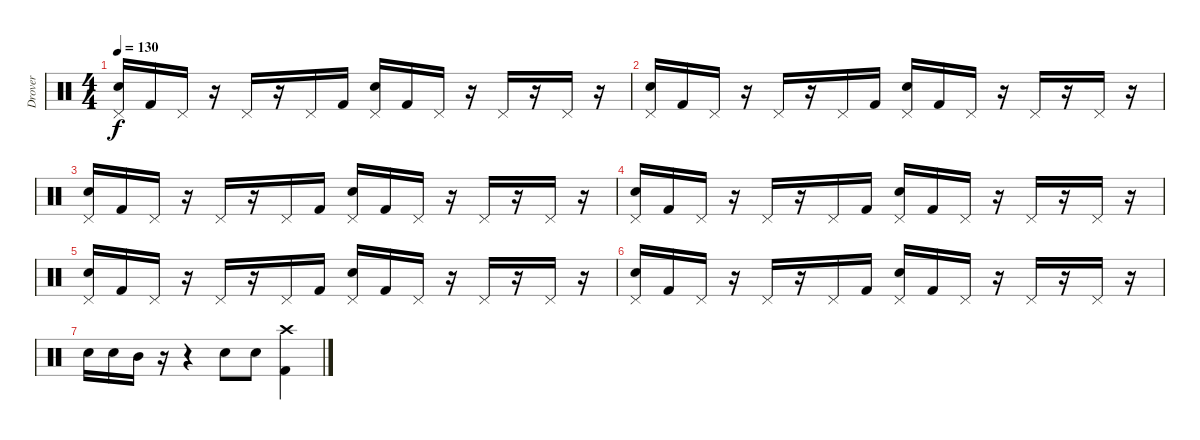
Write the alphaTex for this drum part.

\track ("Drover" "Drover") {instrument percussion}
\staff {score}
\articulation defaults
\ts (4 4)
\tempo 130
\clef neutral
\ks c
("Electric Snare (hit)" "Pedal Hi-Hat (hit)").16{dy f} "Kick (hit) 2".16 "Pedal Hi-Hat (hit)".16 r.16 "Pedal Hi-Hat (hit)".16 r.16 "Pedal Hi-Hat (hit)".16 "Kick (hit) 2".16 ("Electric Snare (hit)" "Pedal Hi-Hat (hit)").16 "Kick (hit) 2".16 "Pedal Hi-Hat (hit)".16 r.16 "Pedal Hi-Hat (hit)".16 r.16 "Pedal Hi-Hat (hit)".16 r.16 |
("Electric Snare (hit)" "Pedal Hi-Hat (hit)").16 "Kick (hit) 2".16 "Pedal Hi-Hat (hit)".16 r.16 "Pedal Hi-Hat (hit)".16 r.16 "Pedal Hi-Hat (hit)".16 "Kick (hit) 2".16 ("Electric Snare (hit)" "Pedal Hi-Hat (hit)").16 "Kick (hit) 2".16 "Pedal Hi-Hat (hit)".16 r.16 "Pedal Hi-Hat (hit)".16 r.16 "Pedal Hi-Hat (hit)".16 r.16 |
("Electric Snare (hit)" "Pedal Hi-Hat (hit)").16 "Kick (hit) 2".16 "Pedal Hi-Hat (hit)".16 r.16 "Pedal Hi-Hat (hit)".16 r.16 "Pedal Hi-Hat (hit)".16 "Kick (hit) 2".16 ("Electric Snare (hit)" "Pedal Hi-Hat (hit)").16 "Kick (hit) 2".16 "Pedal Hi-Hat (hit)".16 r.16 "Pedal Hi-Hat (hit)".16 r.16 "Pedal Hi-Hat (hit)".16 r.16 |
("Electric Snare (hit)" "Pedal Hi-Hat (hit)").16 "Kick (hit) 2".16 "Pedal Hi-Hat (hit)".16 r.16 "Pedal Hi-Hat (hit)".16 r.16 "Pedal Hi-Hat (hit)".16 "Kick (hit) 2".16 ("Electric Snare (hit)" "Pedal Hi-Hat (hit)").16 "Kick (hit) 2".16 "Pedal Hi-Hat (hit)".16 r.16 "Pedal Hi-Hat (hit)".16 r.16 "Pedal Hi-Hat (hit)".16 r.16 |
("Electric Snare (hit)" "Pedal Hi-Hat (hit)").16 "Kick (hit) 2".16 "Pedal Hi-Hat (hit)".16 r.16 "Pedal Hi-Hat (hit)".16 r.16 "Pedal Hi-Hat (hit)".16 "Kick (hit) 2".16 ("Electric Snare (hit)" "Pedal Hi-Hat (hit)").16 "Kick (hit) 2".16 "Pedal Hi-Hat (hit)".16 r.16 "Pedal Hi-Hat (hit)".16 r.16 "Pedal Hi-Hat (hit)".16 r.16 |
("Electric Snare (hit)" "Pedal Hi-Hat (hit)").16 "Kick (hit) 2".16 "Pedal Hi-Hat (hit)".16 r.16 "Pedal Hi-Hat (hit)".16 r.16 "Pedal Hi-Hat (hit)".16 "Kick (hit) 2".16 ("Electric Snare (hit)" "Pedal Hi-Hat (hit)").16 "Kick (hit) 2".16 "Pedal Hi-Hat (hit)".16 r.16 "Pedal Hi-Hat (hit)".16 r.16 "Pedal Hi-Hat (hit)".16 r.16 |
"Electric Snare (hit)".16 "Snare (hit) 2".16 "Mid Tom (hit)".16 r.16 r.4 "Electric Snare (hit)".8 "Snare (hit) 2".8 ("Kick (hit) 2" "Crash high (hit)").4
